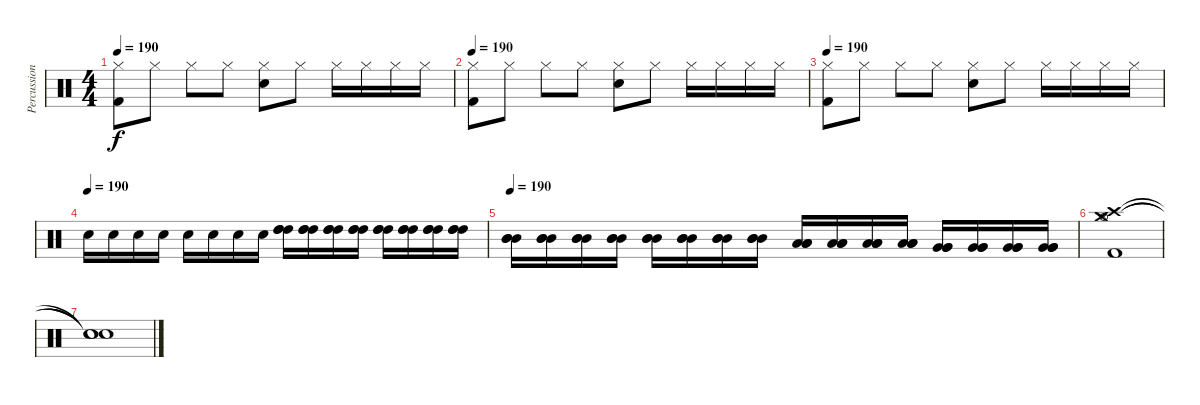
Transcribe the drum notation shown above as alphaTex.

\track ("Percussion" "Percussion") {instrument percussion}
\staff {score}
\articulation defaults
\ts (4 4)
\tempo 190
\clef neutral
\ks c
("Hi-Hat (closed)" "Kick (hit) 2").8{dy f} "Hi-Hat (closed)".8 "Hi-Hat (closed)".8 "Hi-Hat (closed)".8 ("Hi-Hat (closed)" "Electric Snare (hit)").8 "Hi-Hat (closed)".8 "Hi-Hat (closed)".16 "Hi-Hat (closed)".16 "Hi-Hat (closed)".16 "Hi-Hat (closed)".16 |
\tempo 190
("Hi-Hat (closed)" "Kick (hit) 2").8 "Hi-Hat (closed)".8 "Hi-Hat (closed)".8 "Hi-Hat (closed)".8 ("Hi-Hat (closed)" "Electric Snare (hit)").8 "Hi-Hat (closed)".8 "Hi-Hat (closed)".16 "Hi-Hat (closed)".16 "Hi-Hat (closed)".16 "Hi-Hat (closed)".16 |
\tempo 190
("Hi-Hat (closed)" "Kick (hit) 2").8 "Hi-Hat (closed)".8 "Hi-Hat (closed)".8 "Hi-Hat (closed)".8 ("Hi-Hat (closed)" "Electric Snare (hit)").8 "Hi-Hat (closed)".8 "Hi-Hat (closed)".16 "Hi-Hat (closed)".16 "Hi-Hat (closed)".16 "Hi-Hat (closed)".16 |
\tempo (190)
"Electric Snare (hit)".16 "Electric Snare (hit)".16 "Electric Snare (hit)".16 "Electric Snare (hit)".16 "Electric Snare (hit)".16 "Electric Snare (hit)".16 "Electric Snare (hit)".16 "Electric Snare (hit)".16 ("High Tom (hit)" "High Tom (hit)" "High Tom (hit)").16 ("High Tom (hit)" "High Tom (hit)" "High Tom (hit)").16 ("High Tom (hit)" "High Tom (hit)" "High Tom (hit)").16 ("High Tom (hit)" "High Tom (hit)" "High Tom (hit)").16 ("High Tom (hit)" "High Tom (hit)" "High Tom (hit)").16 ("High Tom (hit)" "High Tom (hit)" "High Tom (hit)").16 ("High Tom (hit)" "High Tom (hit)" "High Tom (hit)").16 ("High Tom (hit)" "High Tom (hit)" "High Tom (hit)").16 |
\tempo 190
("Mid Tom (hit)" "Mid Tom (hit)" "Mid Tom (hit)").16 ("Mid Tom (hit)" "Mid Tom (hit)" "Mid Tom (hit)").16 ("Mid Tom (hit)" "Mid Tom (hit)" "Mid Tom (hit)").16 ("Mid Tom (hit)" "Mid Tom (hit)" "Mid Tom (hit)").16 ("Mid Tom (hit)" "Mid Tom (hit)" "Mid Tom (hit)").16 ("Mid Tom (hit)" "Mid Tom (hit)" "Mid Tom (hit)").16 ("Mid Tom (hit)" "Mid Tom (hit)" "Mid Tom (hit)").16 ("Mid Tom (hit)" "Mid Tom (hit)" "Mid Tom (hit)").16 ("Low Tom (hit)" "Low Tom (hit)" "Low Tom (hit)").16 ("Low Tom (hit)" "Low Tom (hit)" "Low Tom (hit)").16 ("Low Tom (hit)" "Low Tom (hit)" "Low Tom (hit)").16 ("Low Tom (hit)" "Low Tom (hit)" "Low Tom (hit)").16 ("Very Low Tom (hit)" "Very Low Tom (hit)" "Very Low Tom (hit)").16 ("Very Low Tom (hit)" "Very Low Tom (hit)" "Very Low Tom (hit)").16 ("Very Low Tom (hit)" "Very Low Tom (hit)" "Very Low Tom (hit)").16 ("Very Low Tom (hit)" "Very Low Tom (hit)" "Very Low Tom (hit)").16 |
("Crash medium (hit)" "Crash high (hit)" "Hi-Hat (open)" "Kick (hit) 2").1 |
("Snare (hit)"{t} "Snare (hit)"{t} "Snare (hit)"{t}).1
